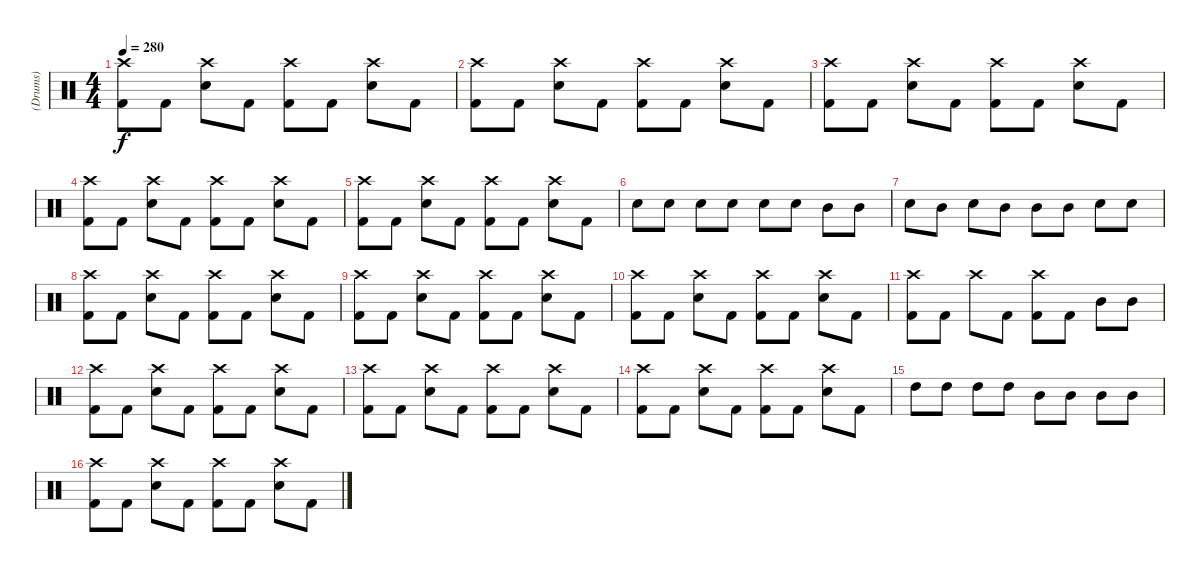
\track ("(Drums)" "(Drums)") {instrument percussion}
\staff {score}
\articulation defaults
\ts (4 4)
\tempo 280
\clef neutral
\ks c
("Crash high (hit)" "Kick (hit) 2").8{dy f} "Kick (hit) 2".8 ("Crash high (hit)" "Snare (hit) 2").8 "Kick (hit) 2".8 ("Crash high (hit)" "Kick (hit) 2").8 "Kick (hit) 2".8 ("Crash high (hit)" "Snare (hit) 2").8 "Kick (hit) 2".8 |
("Crash high (hit)" "Kick (hit) 2").8 "Kick (hit) 2".8 ("Crash high (hit)" "Snare (hit) 2").8 "Kick (hit) 2".8 ("Crash high (hit)" "Kick (hit) 2").8 "Kick (hit) 2".8 ("Crash high (hit)" "Snare (hit) 2").8 "Kick (hit) 2".8 |
("Crash high (hit)" "Kick (hit) 2").8 "Kick (hit) 2".8 ("Crash high (hit)" "Snare (hit) 2").8 "Kick (hit) 2".8 ("Crash high (hit)" "Kick (hit) 2").8 "Kick (hit) 2".8 ("Crash high (hit)" "Snare (hit) 2").8 "Kick (hit) 2".8 |
("Crash high (hit)" "Kick (hit) 2").8 "Kick (hit) 2".8 ("Crash high (hit)" "Snare (hit) 2").8 "Kick (hit) 2".8 ("Crash high (hit)" "Kick (hit) 2").8 "Kick (hit) 2".8 ("Crash high (hit)" "Snare (hit) 2").8 "Kick (hit) 2".8 |
("Crash high (hit)" "Kick (hit) 2").8 "Kick (hit) 2".8 ("Crash high (hit)" "Snare (hit) 2").8 "Kick (hit) 2".8 ("Crash high (hit)" "Kick (hit) 2").8 "Kick (hit) 2".8 ("Crash high (hit)" "Snare (hit) 2").8 "Kick (hit) 2".8 |
"Snare (hit) 2".8 "Snare (hit) 2".8 "Snare (hit) 2".8 "Snare (hit) 2".8 "Snare (hit) 2".8 "Snare (hit) 2".8 "Mid Tom (hit)".8 "Mid Tom (hit)".8 |
"Snare (hit) 2".8 "Mid Tom (hit)".8 "Snare (hit) 2".8 "Mid Tom (hit)".8 "Mid Tom (hit)".8 "Mid Tom (hit)".8 "Snare (hit) 2".8 "Snare (hit) 2".8 |
("Kick (hit) 2" "Crash high (hit)").8 "Kick (hit) 2".8 ("Crash high (hit)" "Snare (hit) 2").8 "Kick (hit) 2".8 ("Kick (hit) 2" "Crash high (hit)").8 "Kick (hit) 2".8 ("Crash high (hit)" "Snare (hit) 2").8 "Kick (hit) 2".8 |
("Kick (hit) 2" "Crash high (hit)").8 "Kick (hit) 2".8 ("Crash high (hit)" "Snare (hit) 2").8 "Kick (hit) 2".8 ("Kick (hit) 2" "Crash high (hit)").8 "Kick (hit) 2".8 ("Crash high (hit)" "Snare (hit) 2").8 "Kick (hit) 2".8 |
("Kick (hit) 2" "Crash high (hit)").8 "Kick (hit) 2".8 ("Crash high (hit)" "Snare (hit) 2").8 "Kick (hit) 2".8 ("Kick (hit) 2" "Crash high (hit)").8 "Kick (hit) 2".8 ("Crash high (hit)" "Snare (hit) 2").8 "Kick (hit) 2".8 |
("Crash high (hit)" "Kick (hit) 2").8 "Kick (hit) 2".8 "Crash high (hit)".8 "Kick (hit) 2".8 ("Crash high (hit)" "Kick (hit) 2").8 "Kick (hit) 2".8 "Mid Tom (hit)".8 "Mid Tom (hit)".8 |
("Kick (hit) 2" "Crash high (hit)").8 "Kick (hit) 2".8 ("Crash high (hit)" "Snare (hit) 2").8 "Kick (hit) 2".8 ("Kick (hit) 2" "Crash high (hit)").8 "Kick (hit) 2".8 ("Crash high (hit)" "Snare (hit) 2").8 "Kick (hit) 2".8 |
("Kick (hit) 2" "Crash high (hit)").8 "Kick (hit) 2".8 ("Crash high (hit)" "Snare (hit) 2").8 "Kick (hit) 2".8 ("Kick (hit) 2" "Crash high (hit)").8 "Kick (hit) 2".8 ("Crash high (hit)" "Snare (hit) 2").8 "Kick (hit) 2".8 |
("Kick (hit) 2" "Crash high (hit)").8 "Kick (hit) 2".8 ("Crash high (hit)" "Snare (hit) 2").8 "Kick (hit) 2".8 ("Kick (hit) 2" "Crash high (hit)").8 "Kick (hit) 2".8 ("Crash high (hit)" "Snare (hit) 2").8 "Kick (hit) 2".8 |
"High Tom (hit)".8 "High Tom (hit)".8 "High Tom (hit)".8 "High Tom (hit)".8 "Mid Tom (hit)".8 "Mid Tom (hit)".8 "Mid Tom (hit)".8 "Mid Tom (hit)".8 |
("Kick (hit) 2" "Crash high (hit)").8 "Kick (hit) 2".8 ("Crash high (hit)" "Snare (hit) 2").8 "Kick (hit) 2".8 ("Kick (hit) 2" "Crash high (hit)").8 "Kick (hit) 2".8 ("Crash high (hit)" "Snare (hit) 2").8 "Kick (hit) 2".8
